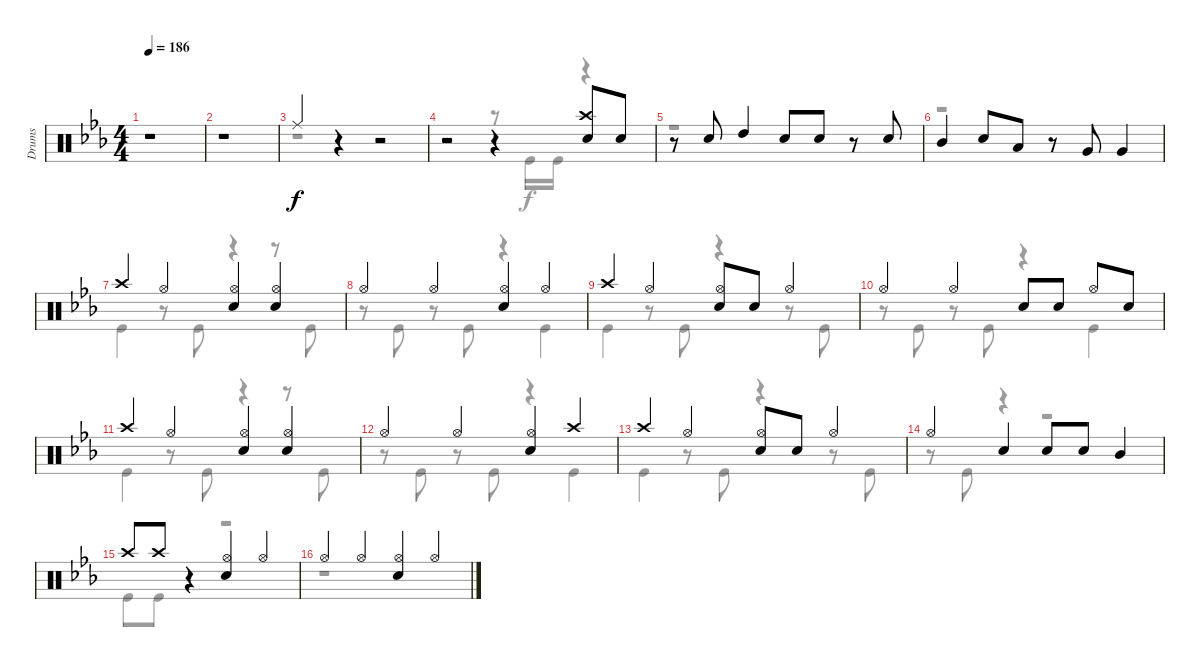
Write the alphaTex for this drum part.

\track ("Drums" "Drums") {instrument percussion}
\staff {score}
\articulation defaults
\voice
\ts (4 4)
\tempo 186
\clef neutral
\ks eb
r.1{dy f} |
r.1 |
"Ride (middle)".4{beam Up} r.4 r.2 |
r.2 r.4 ("Crash high (hit)" "Snare (hit) 2").8{beam Up} "Snare (hit) 2".8{beam Up} |
r.8 "Snare (hit) 2".8{beam Up} "High Tom (hit)".4{beam Up} "Snare (hit) 2".8{beam Up} "Snare (hit) 2".8{beam Up} r.8 "Snare (hit) 2".8{beam Up} |
"Mid Tom (hit)".4{beam Up} "Snare (hit) 2".8{beam Up} "Low Tom (hit)".8{beam Up} r.8 "Very Low Tom (hit)".8{beam Up} "Very Low Tom (hit)".4{beam Up} |
"Crash high (hit)".4{beam Up} "Hi-Hat (open)".4{beam Up} ("Hi-Hat (open)" "Snare (hit) 2").4{beam Up} ("Snare (hit) 2" "Hi-Hat (open)").4{beam Up} |
"Hi-Hat (open)".4{beam Up} "Hi-Hat (open)".4{beam Up} ("Hi-Hat (open)" "Snare (hit) 2").4{beam Up} "Hi-Hat (open)".4{beam Up} |
"Crash high (hit)".4{beam Up} "Hi-Hat (open)".4{beam Up} ("Hi-Hat (open)" "Snare (hit) 2").8{beam Up} "Snare (hit) 2".8{beam Up} "Hi-Hat (open)".4{beam Up} |
"Hi-Hat (open)".4{beam Up} "Hi-Hat (open)".4{beam Up} "Snare (hit) 2".8{beam Up} "Snare (hit) 2".8{beam Up} "Hi-Hat (open)".8{beam Up} "Snare (hit) 2".8{beam Up} |
"Crash high (hit)".4{beam Up} "Hi-Hat (open)".4{beam Up} ("Hi-Hat (open)" "Snare (hit) 2").4{beam Up} ("Snare (hit) 2" "Hi-Hat (open)").4{beam Up} |
"Hi-Hat (open)".4{beam Up} "Hi-Hat (open)".4{beam Up} ("Hi-Hat (open)" "Snare (hit) 2").4{beam Up} "Crash high (hit)".4{beam Up} |
"Crash high (hit)".4{beam Up} "Hi-Hat (open)".4{beam Up} ("Hi-Hat (open)" "Snare (hit) 2").8{beam Up} "Snare (hit) 2".8{beam Up} "Hi-Hat (open)".4{beam Up} |
"Hi-Hat (open)".4{beam Up} "Snare (hit) 2".4{beam Up} "Snare (hit) 2".8{beam Up} "Snare (hit) 2".8{beam Up} "Mid Tom (hit)".4{beam Up} |
"Crash high (hit)".8{beam Up} "Crash high (hit)".8{beam Up} r.4 ("Hi-Hat (open)" "Snare (hit) 2").4{beam Up} "Hi-Hat (open)".4{beam Up} |
"Hi-Hat (open)".4{beam Up} "Hi-Hat (open)".4{beam Up} ("Hi-Hat (open)" "Snare (hit) 2").4{beam Up} "Hi-Hat (open)".4{beam Up}
\voice
\clef neutral
\ottava regular
\simile none
\ks eb
r.1{dy f} |
r.1 |
r.1 |
r.2 r.8 "Kick (hit)".16 "Kick (hit)".16 r.4 |
r.1 |
r.1 |
"Kick (hit)".4 r.8 "Kick (hit)".8 r.4 r.8 "Kick (hit)".8 |
r.8 "Kick (hit)".8 r.8 "Kick (hit)".8 r.4 "Kick (hit)".4 |
"Kick (hit)".4 r.8 "Kick (hit)".8 r.4 r.8 "Kick (hit)".8 |
r.8 "Kick (hit)".8 r.8 "Kick (hit)".8 r.4 "Kick (hit)".4 |
"Kick (hit)".4 r.8 "Kick (hit)".8 r.4 r.8 "Kick (hit)".8 |
r.8 "Kick (hit)".8 r.8 "Kick (hit)".8 r.4 "Kick (hit)".4 |
"Kick (hit)".4 r.8 "Kick (hit)".8 r.4 r.8 "Kick (hit)".8 |
r.8 "Kick (hit)".8 r.4 r.2 |
"Kick (hit)".8 "Kick (hit)".8 r.4 r.2 |
r.1
